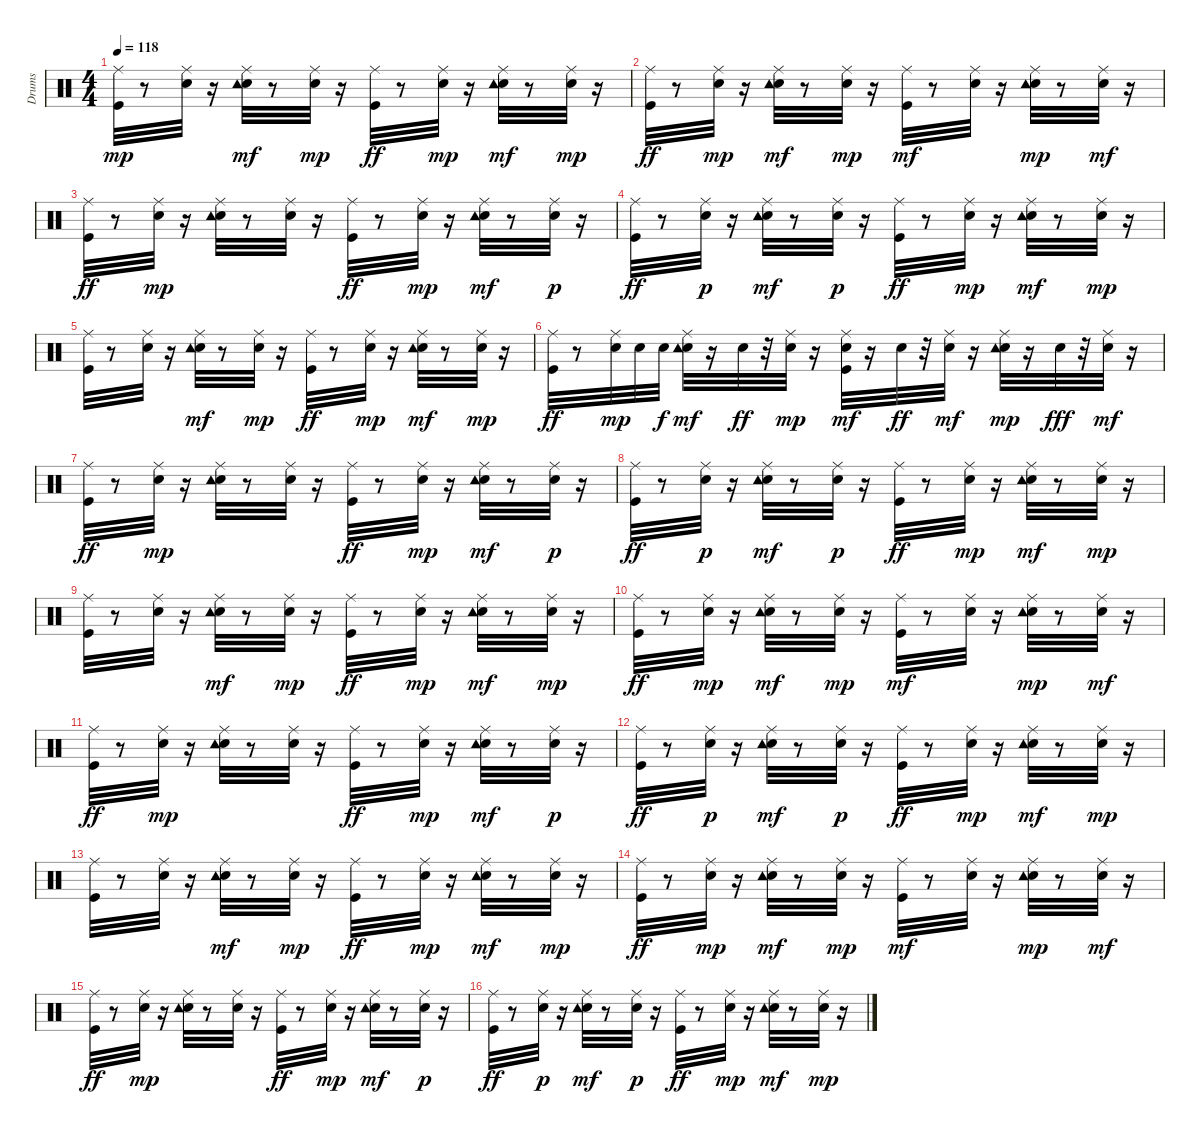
\track ("Drums" "Drums") {instrument percussion}
\staff {score}
\articulation defaults
\ts (4 4)
\tempo 118
\clef neutral
\ks c
("Kick (hit)" "Ride (middle)").32{dy mp} r.8 ("Electric Snare (hit)" "Ride (middle)").32 r.16 ("Electric Snare (hit)" "Ride (middle)" "Tambourine (hit)").32{dy mf} r.8 ("Electric Snare (hit)" "Ride (middle)").32{dy mp} r.16 ("Ride (middle)" "Kick (hit)").32{dy ff} r.8 ("Electric Snare (hit)" "Ride (middle)").32{dy mp} r.16 ("Electric Snare (hit)" "Ride (middle)" "Tambourine (hit)").32{dy mf} r.8 ("Electric Snare (hit)" "Ride (middle)").32{dy mp} r.16 |
("Ride (middle)" "Kick (hit)").32{dy ff} r.8 ("Electric Snare (hit)" "Ride (middle)").32{dy mp} r.16 ("Electric Snare (hit)" "Ride (middle)" "Tambourine (hit)").32{dy mf} r.8 ("Electric Snare (hit)" "Ride (middle)").32{dy mp} r.16 ("Kick (hit)" "Ride (middle)").32{dy mf} r.8 ("Electric Snare (hit)" "Ride (middle)").32 r.16 ("Electric Snare (hit)" "Ride (middle)" "Tambourine (hit)").32{dy mp} r.8 ("Electric Snare (hit)" "Ride (middle)").32{dy mf} r.16 |
("Ride (middle)" "Kick (hit)").32{dy ff} r.8 ("Electric Snare (hit)" "Ride (middle)").32{dy mp} r.16 ("Electric Snare (hit)" "Tambourine (hit)" "Ride (middle)").32 r.8 ("Electric Snare (hit)" "Ride (middle)").32 r.16 ("Ride (middle)" "Kick (hit)").32{dy ff} r.8 ("Electric Snare (hit)" "Ride (middle)").32{dy mp} r.16 ("Electric Snare (hit)" "Ride (middle)" "Tambourine (hit)").32{dy mf} r.8 ("Ride (middle)" "Electric Snare (hit)").32{dy p} r.16 |
("Ride (middle)" "Kick (hit)").32{dy ff} r.8 ("Electric Snare (hit)" "Ride (middle)").32{dy p} r.16 ("Electric Snare (hit)" "Ride (middle)" "Tambourine (hit)").32{dy mf} r.8 ("Ride (middle)" "Electric Snare (hit)").32{dy p} r.16 ("Ride (middle)" "Kick (hit)").32{dy ff} r.8 ("Electric Snare (hit)" "Ride (middle)").32{dy mp} r.16 ("Electric Snare (hit)" "Ride (middle)" "Tambourine (hit)").32{dy mf} r.8 ("Electric Snare (hit)" "Ride (middle)").32{dy mp} r.16 |
("Kick (hit)" "Ride (middle)").32 r.8 ("Electric Snare (hit)" "Ride (middle)").32 r.16 ("Electric Snare (hit)" "Ride (middle)" "Tambourine (hit)").32{dy mf} r.8 ("Electric Snare (hit)" "Ride (middle)").32{dy mp} r.16 ("Ride (middle)" "Kick (hit)").32{dy ff} r.8 ("Electric Snare (hit)" "Ride (middle)").32{dy mp} r.16 ("Electric Snare (hit)" "Ride (middle)" "Tambourine (hit)").32{dy mf} r.8 ("Electric Snare (hit)" "Ride (middle)").32{dy mp} r.16 |
("Ride (middle)" "Kick (hit)").32{dy ff} r.8 ("Electric Snare (hit)" "Ride (middle)").32{dy mp} "Electric Snare (hit)".32 "Electric Snare (hit)".32{dy f} ("Electric Snare (hit)" "Ride (middle)" "Tambourine (hit)").32{dy mf} r.16 "Electric Snare (hit)".32{dy ff} r.32 ("Electric Snare (hit)" "Ride (middle)").32{dy mp} r.16 ("Electric Snare (hit)" "Kick (hit)" "Ride (middle)").32{dy mf} r.16 "Electric Snare (hit)".32{dy ff} r.32 ("Electric Snare (hit)" "Ride (middle)").32{dy mf} r.16 ("Electric Snare (hit)" "Ride (middle)" "Tambourine (hit)").32{dy mp} r.16 "Electric Snare (hit)".32{dy fff} r.32 ("Electric Snare (hit)" "Ride (middle)").32{dy mf} r.16 |
("Ride (middle)" "Kick (hit)").32{dy ff} r.8 ("Electric Snare (hit)" "Ride (middle)").32{dy mp} r.16 ("Electric Snare (hit)" "Tambourine (hit)" "Ride (middle)").32 r.8 ("Electric Snare (hit)" "Ride (middle)").32 r.16 ("Ride (middle)" "Kick (hit)").32{dy ff} r.8 ("Electric Snare (hit)" "Ride (middle)").32{dy mp} r.16 ("Electric Snare (hit)" "Ride (middle)" "Tambourine (hit)").32{dy mf} r.8 ("Ride (middle)" "Electric Snare (hit)").32{dy p} r.16 |
("Ride (middle)" "Kick (hit)").32{dy ff} r.8 ("Electric Snare (hit)" "Ride (middle)").32{dy p} r.16 ("Electric Snare (hit)" "Ride (middle)" "Tambourine (hit)").32{dy mf} r.8 ("Ride (middle)" "Electric Snare (hit)").32{dy p} r.16 ("Ride (middle)" "Kick (hit)").32{dy ff} r.8 ("Electric Snare (hit)" "Ride (middle)").32{dy mp} r.16 ("Electric Snare (hit)" "Ride (middle)" "Tambourine (hit)").32{dy mf} r.8 ("Electric Snare (hit)" "Ride (middle)").32{dy mp} r.16 |
("Kick (hit)" "Ride (middle)").32 r.8 ("Electric Snare (hit)" "Ride (middle)").32 r.16 ("Electric Snare (hit)" "Ride (middle)" "Tambourine (hit)").32{dy mf} r.8 ("Electric Snare (hit)" "Ride (middle)").32{dy mp} r.16 ("Ride (middle)" "Kick (hit)").32{dy ff} r.8 ("Electric Snare (hit)" "Ride (middle)").32{dy mp} r.16 ("Electric Snare (hit)" "Ride (middle)" "Tambourine (hit)").32{dy mf} r.8 ("Electric Snare (hit)" "Ride (middle)").32{dy mp} r.16 |
("Ride (middle)" "Kick (hit)").32{dy ff} r.8 ("Electric Snare (hit)" "Ride (middle)").32{dy mp} r.16 ("Electric Snare (hit)" "Ride (middle)" "Tambourine (hit)").32{dy mf} r.8 ("Electric Snare (hit)" "Ride (middle)").32{dy mp} r.16 ("Kick (hit)" "Ride (middle)").32{dy mf} r.8 ("Electric Snare (hit)" "Ride (middle)").32 r.16 ("Electric Snare (hit)" "Ride (middle)" "Tambourine (hit)").32{dy mp} r.8 ("Electric Snare (hit)" "Ride (middle)").32{dy mf} r.16 |
("Ride (middle)" "Kick (hit)").32{dy ff} r.8 ("Electric Snare (hit)" "Ride (middle)").32{dy mp} r.16 ("Electric Snare (hit)" "Tambourine (hit)" "Ride (middle)").32 r.8 ("Electric Snare (hit)" "Ride (middle)").32 r.16 ("Ride (middle)" "Kick (hit)").32{dy ff} r.8 ("Electric Snare (hit)" "Ride (middle)").32{dy mp} r.16 ("Electric Snare (hit)" "Ride (middle)" "Tambourine (hit)").32{dy mf} r.8 ("Ride (middle)" "Electric Snare (hit)").32{dy p} r.16 |
("Ride (middle)" "Kick (hit)").32{dy ff} r.8 ("Electric Snare (hit)" "Ride (middle)").32{dy p} r.16 ("Electric Snare (hit)" "Ride (middle)" "Tambourine (hit)").32{dy mf} r.8 ("Ride (middle)" "Electric Snare (hit)").32{dy p} r.16 ("Ride (middle)" "Kick (hit)").32{dy ff} r.8 ("Electric Snare (hit)" "Ride (middle)").32{dy mp} r.16 ("Electric Snare (hit)" "Ride (middle)" "Tambourine (hit)").32{dy mf} r.8 ("Electric Snare (hit)" "Ride (middle)").32{dy mp} r.16 |
("Kick (hit)" "Ride (middle)").32 r.8 ("Electric Snare (hit)" "Ride (middle)").32 r.16 ("Electric Snare (hit)" "Ride (middle)" "Tambourine (hit)").32{dy mf} r.8 ("Electric Snare (hit)" "Ride (middle)").32{dy mp} r.16 ("Ride (middle)" "Kick (hit)").32{dy ff} r.8 ("Electric Snare (hit)" "Ride (middle)").32{dy mp} r.16 ("Electric Snare (hit)" "Ride (middle)" "Tambourine (hit)").32{dy mf} r.8 ("Electric Snare (hit)" "Ride (middle)").32{dy mp} r.16 |
("Ride (middle)" "Kick (hit)").32{dy ff} r.8 ("Electric Snare (hit)" "Ride (middle)").32{dy mp} r.16 ("Electric Snare (hit)" "Ride (middle)" "Tambourine (hit)").32{dy mf} r.8 ("Electric Snare (hit)" "Ride (middle)").32{dy mp} r.16 ("Kick (hit)" "Ride (middle)").32{dy mf} r.8 ("Electric Snare (hit)" "Ride (middle)").32 r.16 ("Electric Snare (hit)" "Ride (middle)" "Tambourine (hit)").32{dy mp} r.8 ("Electric Snare (hit)" "Ride (middle)").32{dy mf} r.16 |
("Ride (middle)" "Kick (hit)").32{dy ff} r.8 ("Electric Snare (hit)" "Ride (middle)").32{dy mp} r.16 ("Electric Snare (hit)" "Tambourine (hit)" "Ride (middle)").32 r.8 ("Electric Snare (hit)" "Ride (middle)").32 r.16 ("Ride (middle)" "Kick (hit)").32{dy ff} r.8 ("Electric Snare (hit)" "Ride (middle)").32{dy mp} r.16 ("Electric Snare (hit)" "Ride (middle)" "Tambourine (hit)").32{dy mf} r.8 ("Ride (middle)" "Electric Snare (hit)").32{dy p} r.16 |
("Ride (middle)" "Kick (hit)").32{dy ff} r.8 ("Electric Snare (hit)" "Ride (middle)").32{dy p} r.16 ("Electric Snare (hit)" "Ride (middle)" "Tambourine (hit)").32{dy mf} r.8 ("Ride (middle)" "Electric Snare (hit)").32{dy p} r.16 ("Ride (middle)" "Kick (hit)").32{dy ff} r.8 ("Electric Snare (hit)" "Ride (middle)").32{dy mp} r.16 ("Electric Snare (hit)" "Ride (middle)" "Tambourine (hit)").32{dy mf} r.8 ("Electric Snare (hit)" "Ride (middle)").32{dy mp} r.16
